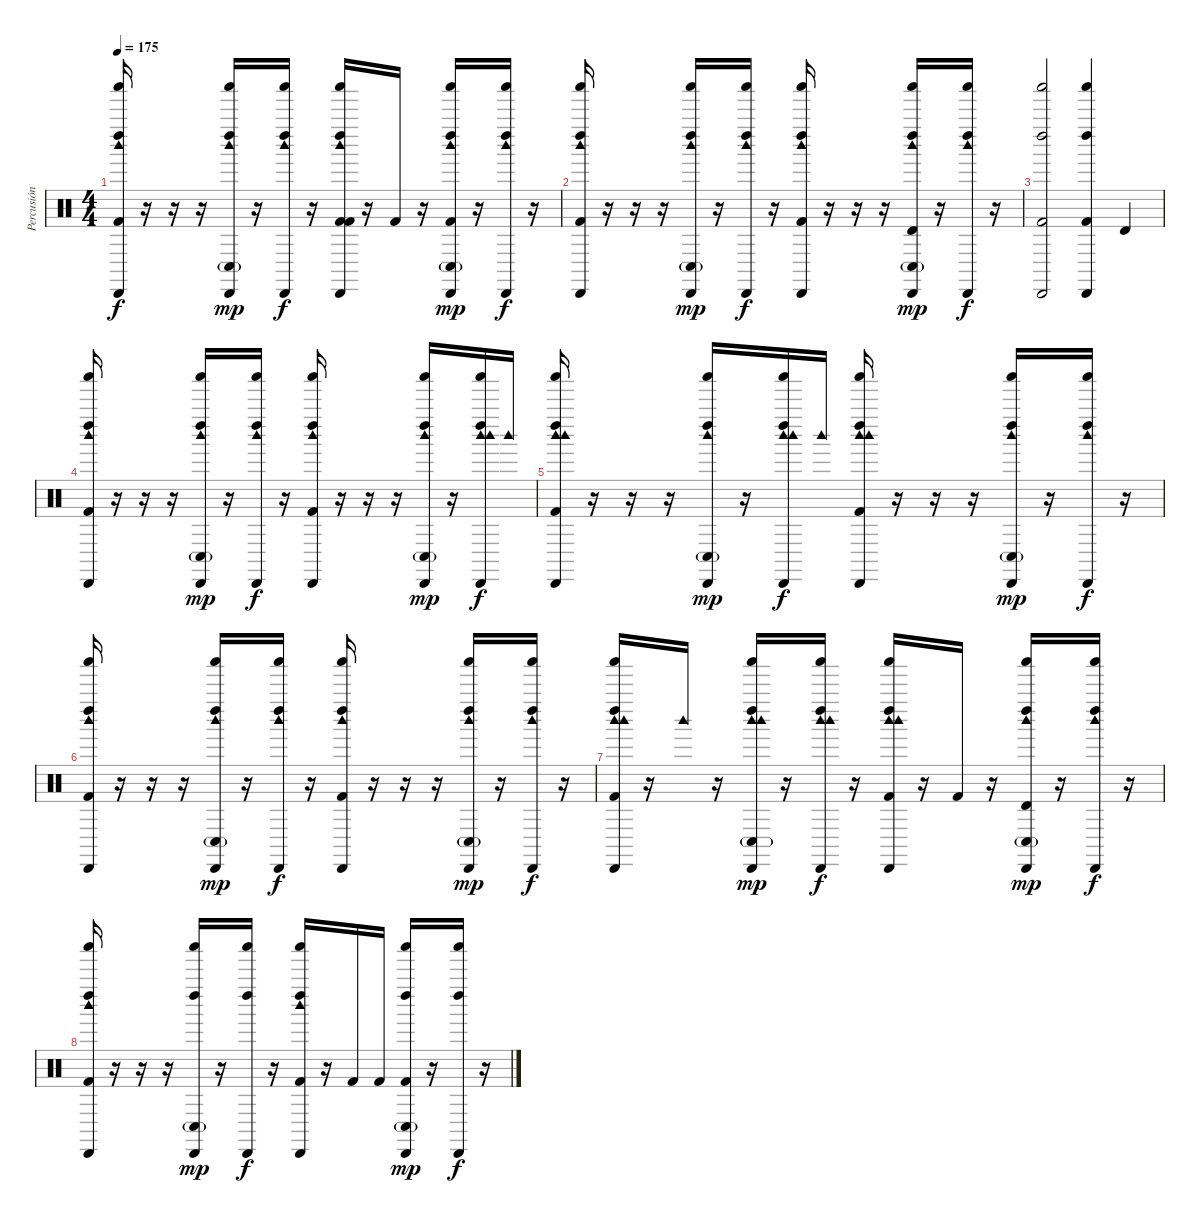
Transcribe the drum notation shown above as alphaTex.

\track ("Percusión" "Percusión") {instrument percussion}
\staff {score}
\articulation defaults
\ts (4 4)
\tempo 175
\clef neutral
\ks c
("Cabasa (hit)" "Shaker (hit)" "Kick (hit) 2" "Left Maraca (hit)" "Woodblock high (hit)").16{dy f} r.16 r.16 r.16 ("Cabasa (hit)" "Shaker (hit)" "Conga low (hit)"{g} "Left Maraca (hit)" "Woodblock high (hit)").16{dy mp} r.16 ("Cabasa (hit)" "Shaker (hit)" "Left Maraca (hit)" "Woodblock high (hit)").16{dy f} r.16 ("Kick (hit) 2" "Cabasa (hit)" "Shaker (hit)" "Kick (hit) 2" "Left Maraca (hit)" "Woodblock high (hit)").16 r.16 "Kick (hit) 2".16 r.16 ("Kick (hit) 2" "Cabasa (hit)" "Shaker (hit)" "Conga low (hit)"{g} "Left Maraca (hit)" "Woodblock high (hit)").16{dy mp} r.16 ("Cabasa (hit)" "Shaker (hit)" "Left Maraca (hit)" "Woodblock high (hit)").16{dy f} r.16 |
("Cabasa (hit)" "Shaker (hit)" "Kick (hit) 2" "Left Maraca (hit)" "Woodblock high (hit)").16 r.16 r.16 r.16 ("Cabasa (hit)" "Shaker (hit)" "Conga low (hit)"{g} "Left Maraca (hit)" "Woodblock high (hit)").16{dy mp} r.16 ("Cabasa (hit)" "Shaker (hit)" "Left Maraca (hit)" "Woodblock high (hit)").16{dy f} r.16 ("Cabasa (hit)" "Shaker (hit)" "Kick (hit) 2" "Left Maraca (hit)" "Woodblock high (hit)").16 r.16 r.16 r.16 ("Timbale high (hit)" "Cabasa (hit)" "Shaker (hit)" "Conga low (hit)"{g} "Left Maraca (hit)" "Woodblock high (hit)").16{dy mp} r.16 ("Cabasa (hit)" "Shaker (hit)" "Left Maraca (hit)" "Woodblock high (hit)").16{dy f} r.16 |
("Cabasa (hit)" "Shaker (hit)" "Kick (hit) 2" "Left Maraca (hit)").2 ("Cabasa (hit)" "Shaker (hit)" "Kick (hit) 2" "Left Maraca (hit)").4 "Timbale high (hit)".4 |
("Cabasa (hit)" "Shaker (hit)" "Kick (hit) 2" "Left Maraca (hit)" "Woodblock high (hit)").16 r.16 r.16 r.16 ("Cabasa (hit)" "Shaker (hit)" "Conga low (hit)"{g} "Left Maraca (hit)" "Woodblock high (hit)").16{dy mp} r.16 ("Cabasa (hit)" "Shaker (hit)" "Left Maraca (hit)" "Woodblock high (hit)").16{dy f} r.16 ("Cabasa (hit)" "Shaker (hit)" "Kick (hit) 2" "Left Maraca (hit)" "Woodblock high (hit)").16 r.16 r.16 r.16 ("Cabasa (hit)" "Shaker (hit)" "Conga low (hit)"{g} "Left Maraca (hit)" "Woodblock high (hit)").16{dy mp} r.16 ("Woodblock high (hit)" "Cabasa (hit)" "Shaker (hit)" "Left Maraca (hit)" "Woodblock high (hit)").16{dy f} "Woodblock high (hit)".16 |
("Woodblock high (hit)" "Cabasa (hit)" "Shaker (hit)" "Kick (hit) 2" "Left Maraca (hit)" "Woodblock high (hit)").16 r.16 r.16 r.16 ("Cabasa (hit)" "Shaker (hit)" "Conga low (hit)"{g} "Left Maraca (hit)" "Woodblock high (hit)").16{dy mp} r.16 ("Woodblock high (hit)" "Cabasa (hit)" "Shaker (hit)" "Left Maraca (hit)" "Woodblock high (hit)").16{dy f} "Woodblock high (hit)".16 ("Woodblock high (hit)" "Cabasa (hit)" "Shaker (hit)" "Kick (hit) 2" "Left Maraca (hit)" "Woodblock high (hit)").16 r.16 r.16 r.16 ("Cabasa (hit)" "Shaker (hit)" "Conga low (hit)"{g} "Left Maraca (hit)" "Woodblock high (hit)").16{dy mp} r.16 ("Cabasa (hit)" "Shaker (hit)" "Left Maraca (hit)" "Woodblock high (hit)").16{dy f} r.16 |
("Cabasa (hit)" "Shaker (hit)" "Kick (hit) 2" "Left Maraca (hit)" "Woodblock high (hit)").16 r.16 r.16 r.16 ("Cabasa (hit)" "Shaker (hit)" "Conga low (hit)"{g} "Left Maraca (hit)" "Woodblock high (hit)").16{dy mp} r.16 ("Cabasa (hit)" "Shaker (hit)" "Left Maraca (hit)" "Woodblock high (hit)").16{dy f} r.16 ("Cabasa (hit)" "Shaker (hit)" "Kick (hit) 2" "Left Maraca (hit)" "Woodblock high (hit)").16 r.16 r.16 r.16 ("Cabasa (hit)" "Shaker (hit)" "Conga low (hit)"{g} "Left Maraca (hit)" "Woodblock high (hit)").16{dy mp} r.16 ("Cabasa (hit)" "Shaker (hit)" "Left Maraca (hit)" "Woodblock high (hit)").16{dy f} r.16 |
("Woodblock high (hit)" "Cabasa (hit)" "Shaker (hit)" "Kick (hit) 2" "Left Maraca (hit)" "Woodblock high (hit)").16 r.16 "Woodblock high (hit)".16 r.16 ("Woodblock high (hit)" "Cabasa (hit)" "Shaker (hit)" "Conga low (hit)"{g} "Left Maraca (hit)" "Woodblock high (hit)").16{dy mp} r.16 ("Woodblock high (hit)" "Cabasa (hit)" "Shaker (hit)" "Left Maraca (hit)" "Woodblock high (hit)").16{dy f} r.16 ("Woodblock high (hit)" "Cabasa (hit)" "Shaker (hit)" "Kick (hit) 2" "Left Maraca (hit)" "Woodblock high (hit)").16 r.16 "Kick (hit) 2".16 r.16 ("Timbale high (hit)" "Cabasa (hit)" "Shaker (hit)" "Conga low (hit)"{g} "Left Maraca (hit)" "Woodblock high (hit)").16{dy mp} r.16 ("Cabasa (hit)" "Shaker (hit)" "Left Maraca (hit)" "Woodblock high (hit)").16{dy f} r.16 |
("Cabasa (hit)" "Shaker (hit)" "Kick (hit) 2" "Left Maraca (hit)" "Woodblock high (hit)").16 r.16 r.16 r.16 ("Cabasa (hit)" "Shaker (hit)" "Conga low (hit)"{g} "Left Maraca (hit)").16{dy mp} r.16 ("Cabasa (hit)" "Shaker (hit)" "Left Maraca (hit)").16{dy f} r.16 ("Cabasa (hit)" "Shaker (hit)" "Kick (hit) 2" "Left Maraca (hit)" "Woodblock high (hit)").16 r.16 "Kick (hit) 2".16 "Kick (hit) 2".16 ("Kick (hit) 2" "Cabasa (hit)" "Shaker (hit)" "Conga low (hit)"{g} "Left Maraca (hit)").16{dy mp} r.16 ("Cabasa (hit)" "Shaker (hit)" "Left Maraca (hit)").16{dy f} r.16
